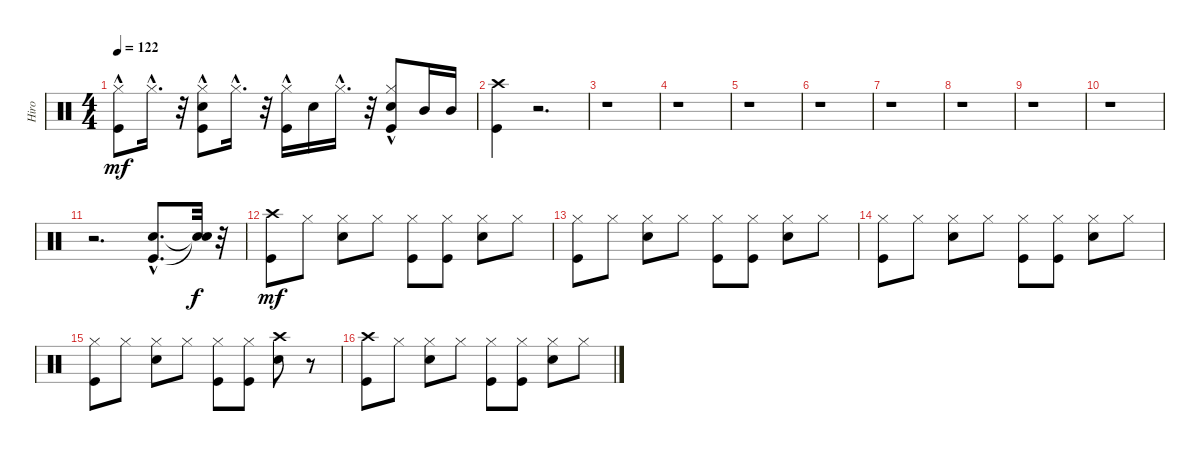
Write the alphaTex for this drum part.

\track ("Hiro" "Hiro") {instrument percussion}
\staff {score}
\articulation defaults
\ts (4 4)
\tempo 122
\clef neutral
\ks c
("Kick (hit)"{hac} "Hi-Hat (closed)").8{dy mf} "Hi-Hat (closed)"{hac}.16{d} r.32 ("Kick (hit)"{hac} "Hi-Hat (closed)"{hac} "Electric Snare (hit)"{hac}).8 "Hi-Hat (closed)"{hac}.16{d} r.32 ("Kick (hit)"{hac} "Hi-Hat (closed)"{hac}).16 "Electric Snare (hit)".16 "Hi-Hat (closed)"{hac}.16{d} r.32 ("Kick (hit)"{hac} "Hi-Hat (closed)"{hac} "Electric Snare (hit)"{hac}).8 "Mid Tom (hit)".16 "Mid Tom (hit)".16 |
("Crash high (hit)" "Kick (hit)").4 r.2{d} |
r.1 |
r.1 |
r.1 |
r.1 |
r.1 |
r.1 |
r.1 |
r.1 |
r.2{d} ("Electric Snare (hit)"{hac} "Kick (hit)"{hac}).8{d} ("Snare (hit)"{t} "Snare (hit)"{t}).32{dy f} r.32 |
("Crash high (hit)" "Kick (hit)").8{dy mf} "Hi-Hat (closed)".8 ("Electric Snare (hit)" "Hi-Hat (closed)").8 "Hi-Hat (closed)".8 ("Hi-Hat (closed)" "Kick (hit)").8 ("Hi-Hat (closed)" "Kick (hit)").8 ("Electric Snare (hit)" "Hi-Hat (closed)").8 "Hi-Hat (closed)".8 |
("Hi-Hat (closed)" "Kick (hit)").8 "Hi-Hat (closed)".8 ("Electric Snare (hit)" "Hi-Hat (closed)").8 "Hi-Hat (closed)".8 ("Hi-Hat (closed)" "Kick (hit)").8 ("Hi-Hat (closed)" "Kick (hit)").8 ("Electric Snare (hit)" "Hi-Hat (closed)").8 "Hi-Hat (closed)".8 |
("Hi-Hat (closed)" "Kick (hit)").8 "Hi-Hat (closed)".8 ("Electric Snare (hit)" "Hi-Hat (closed)").8 "Hi-Hat (closed)".8 ("Hi-Hat (closed)" "Kick (hit)").8 ("Hi-Hat (closed)" "Kick (hit)").8 ("Electric Snare (hit)" "Hi-Hat (closed)").8 "Hi-Hat (closed)".8 |
("Hi-Hat (closed)" "Kick (hit)").8 "Hi-Hat (closed)".8 ("Electric Snare (hit)" "Hi-Hat (closed)").8 "Hi-Hat (closed)".8 ("Hi-Hat (closed)" "Kick (hit)").8 ("Hi-Hat (closed)" "Kick (hit)").8 ("Electric Snare (hit)" "Crash high (hit)").8 r.8 |
("Crash high (hit)" "Kick (hit)").8 "Hi-Hat (closed)".8 ("Electric Snare (hit)" "Hi-Hat (closed)").8 "Hi-Hat (closed)".8 ("Hi-Hat (closed)" "Kick (hit)").8 ("Hi-Hat (closed)" "Kick (hit)").8 ("Electric Snare (hit)" "Hi-Hat (closed)").8 "Hi-Hat (closed)".8
